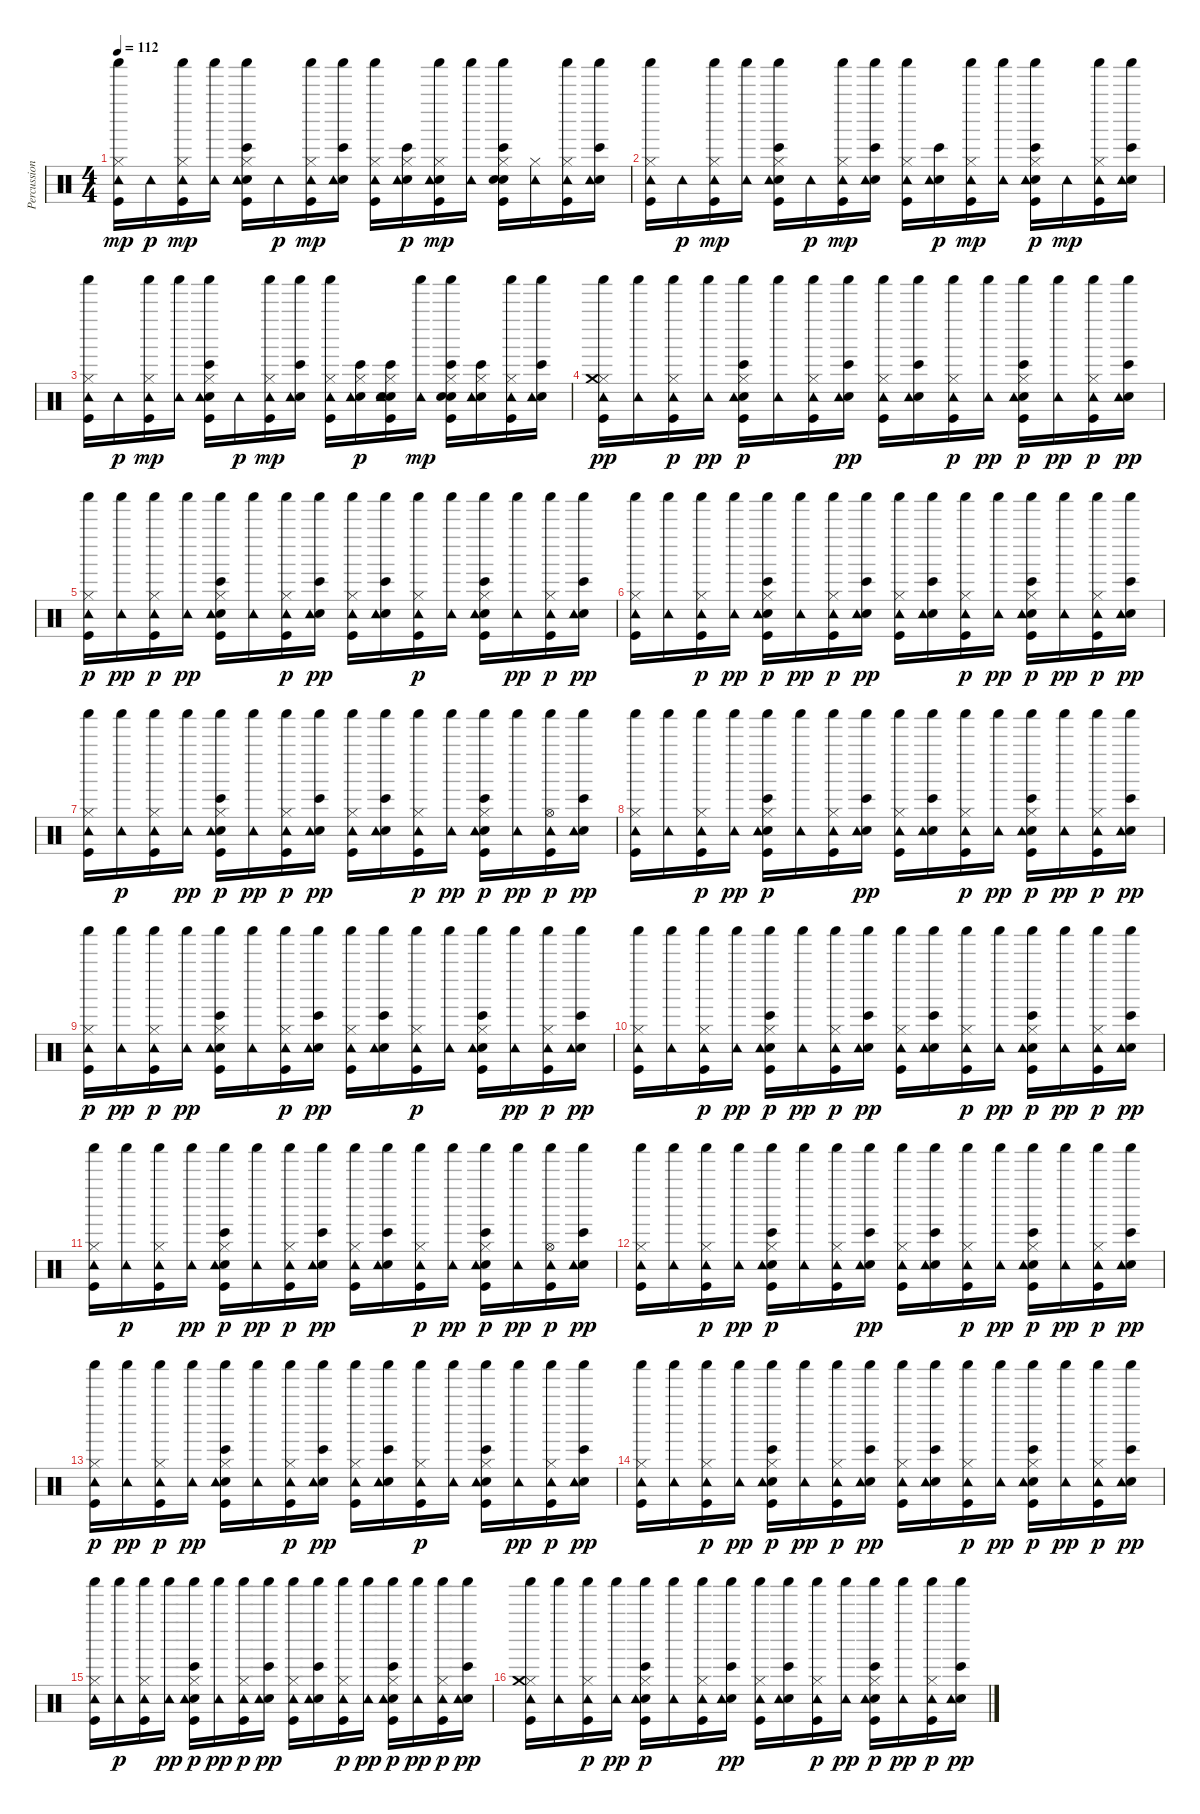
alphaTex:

\track ("Percussioni" "Percussion") {instrument percussion}
\staff {score}
\articulation defaults
\ts (4 4)
\tempo 112
\clef neutral
\ks c
("Kick (hit)" "Hi-Hat (closed)" "Tambourine (hit)" "Shaker (hit)").16{dy mp} "Tambourine (hit)".16{dy p} ("Kick (hit)" "Hi-Hat (closed)" "Tambourine (hit)" "Shaker (hit)").16{dy mp} ("Tambourine (hit)" "Shaker (hit)").16 ("Bongo High (hit)" "Kick (hit)" "Electric Snare (hit)" "Hi-Hat (closed)" "Tambourine (hit)" "Shaker (hit)").16 "Tambourine (hit)".16{dy p} ("Kick (hit)" "Hi-Hat (closed)" "Tambourine (hit)" "Shaker (hit)").16{dy mp} ("Bongo High (hit)" "Electric Snare (hit)" "Tambourine (hit)" "Shaker (hit)").16 ("Kick (hit)" "Hi-Hat (closed)" "Tambourine (hit)" "Shaker (hit)").16 ("Bongo High (hit)" "Electric Snare (hit)" "Hi-Hat (closed)" "Tambourine (hit)").16{dy p} ("Kick (hit)" "Hand Clap (hit)" "Hi-Hat (closed)" "Tambourine (hit)" "Shaker (hit)").16{dy mp} ("Tambourine (hit)" "Shaker (hit)").16 ("Bongo High (hit)" "Kick (hit)" "Hand Clap (hit)" "Electric Snare (hit)" "Hi-Hat (closed)" "Shaker (hit)").16 ("Hi-Hat (closed)" "Tambourine (hit)").16 ("Kick (hit)" "Hi-Hat (closed)" "Tambourine (hit)" "Shaker (hit)").16 ("Bongo High (hit)" "Electric Snare (hit)" "Tambourine (hit)" "Shaker (hit)").16 |
("Kick (hit)" "Hi-Hat (closed)" "Tambourine (hit)" "Shaker (hit)").16 "Tambourine (hit)".16{dy p} ("Kick (hit)" "Hi-Hat (closed)" "Tambourine (hit)" "Shaker (hit)").16{dy mp} ("Tambourine (hit)" "Shaker (hit)").16 ("Bongo High (hit)" "Kick (hit)" "Electric Snare (hit)" "Hi-Hat (closed)" "Tambourine (hit)" "Shaker (hit)").16 "Tambourine (hit)".16{dy p} ("Kick (hit)" "Hi-Hat (closed)" "Tambourine (hit)" "Shaker (hit)").16{dy mp} ("Bongo High (hit)" "Electric Snare (hit)" "Tambourine (hit)" "Shaker (hit)").16 ("Kick (hit)" "Hi-Hat (closed)" "Tambourine (hit)" "Shaker (hit)").16 ("Bongo High (hit)" "Electric Snare (hit)" "Tambourine (hit)").16{dy p} ("Kick (hit)" "Hi-Hat (closed)" "Tambourine (hit)" "Shaker (hit)").16{dy mp} ("Tambourine (hit)" "Shaker (hit)").16 ("Bongo High (hit)" "Kick (hit)" "Electric Snare (hit)" "Hi-Hat (closed)" "Shaker (hit)" "Tambourine (hit)").16{dy p} "Tambourine (hit)".16{dy mp} ("Kick (hit)" "Hi-Hat (closed)" "Tambourine (hit)" "Shaker (hit)").16 ("Bongo High (hit)" "Electric Snare (hit)" "Tambourine (hit)" "Shaker (hit)").16 |
("Kick (hit)" "Hi-Hat (closed)" "Tambourine (hit)" "Shaker (hit)").16 "Tambourine (hit)".16{dy p} ("Kick (hit)" "Hi-Hat (closed)" "Tambourine (hit)" "Shaker (hit)").16{dy mp} ("Tambourine (hit)" "Shaker (hit)").16 ("Bongo High (hit)" "Kick (hit)" "Electric Snare (hit)" "Hi-Hat (closed)" "Tambourine (hit)" "Shaker (hit)").16 "Tambourine (hit)".16{dy p} ("Kick (hit)" "Hi-Hat (closed)" "Tambourine (hit)" "Shaker (hit)").16{dy mp} ("Bongo High (hit)" "Electric Snare (hit)" "Tambourine (hit)" "Shaker (hit)").16 ("Kick (hit)" "Hi-Hat (closed)" "Tambourine (hit)" "Shaker (hit)").16 ("Bongo High (hit)" "Electric Snare (hit)" "Hi-Hat (closed)" "Tambourine (hit)").16{dy p} ("Bongo High (hit)" "Kick (hit)" "Hand Clap (hit)" "Electric Snare (hit)" "Hi-Hat (closed)" "Tambourine (hit)").16 ("Tambourine (hit)" "Shaker (hit)").16{dy mp} ("Bongo High (hit)" "Kick (hit)" "Hand Clap (hit)" "Electric Snare (hit)" "Hi-Hat (closed)" "Shaker (hit)").16 ("Bongo High (hit)" "Electric Snare (hit)" "Hi-Hat (closed)" "Tambourine (hit)").16 ("Kick (hit)" "Hi-Hat (closed)" "Tambourine (hit)" "Shaker (hit)").16 ("Bongo High (hit)" "Electric Snare (hit)" "Tambourine (hit)" "Shaker (hit)").16 |
("Kick (hit)" "Hi-Hat (closed)" "Tambourine (hit)" "Crash medium (hit)" "Shaker (hit)").16{dy pp} ("Tambourine (hit)" "Shaker (hit)").16 ("Kick (hit)" "Hi-Hat (closed)" "Shaker (hit)" "Tambourine (hit)").16{dy p} ("Tambourine (hit)" "Shaker (hit)").16{dy pp} ("Bongo High (hit)" "Kick (hit)" "Electric Snare (hit)" "Hi-Hat (closed)" "Shaker (hit)" "Tambourine (hit)").16{dy p} ("Shaker (hit)" "Tambourine (hit)").16 ("Kick (hit)" "Hi-Hat (closed)" "Shaker (hit)" "Tambourine (hit)").16 ("Bongo High (hit)" "Electric Snare (hit)" "Tambourine (hit)" "Shaker (hit)").16{dy pp} ("Kick (hit)" "Hi-Hat (closed)" "Tambourine (hit)" "Shaker (hit)").16 ("Bongo High (hit)" "Electric Snare (hit)" "Tambourine (hit)" "Shaker (hit)").16 ("Kick (hit)" "Hi-Hat (closed)" "Shaker (hit)" "Tambourine (hit)").16{dy p} ("Tambourine (hit)" "Shaker (hit)").16{dy pp} ("Bongo High (hit)" "Kick (hit)" "Electric Snare (hit)" "Hi-Hat (closed)" "Shaker (hit)" "Tambourine (hit)").16{dy p} ("Tambourine (hit)" "Shaker (hit)").16{dy pp} ("Kick (hit)" "Hi-Hat (closed)" "Shaker (hit)" "Tambourine (hit)").16{dy p} ("Bongo High (hit)" "Electric Snare (hit)" "Tambourine (hit)" "Shaker (hit)").16{dy pp} |
("Shaker (hit)" "Kick (hit)" "Hi-Hat (closed)" "Tambourine (hit)").16{dy p} ("Tambourine (hit)" "Shaker (hit)").16{dy pp} ("Kick (hit)" "Hi-Hat (closed)" "Shaker (hit)" "Tambourine (hit)").16{dy p} ("Tambourine (hit)" "Shaker (hit)").16{dy pp} ("Bongo High (hit)" "Kick (hit)" "Electric Snare (hit)" "Hi-Hat (closed)" "Tambourine (hit)" "Shaker (hit)").16 ("Tambourine (hit)" "Shaker (hit)").16 ("Kick (hit)" "Hi-Hat (closed)" "Shaker (hit)" "Tambourine (hit)").16{dy p} ("Bongo High (hit)" "Electric Snare (hit)" "Tambourine (hit)" "Shaker (hit)").16{dy pp} ("Kick (hit)" "Hi-Hat (closed)" "Tambourine (hit)" "Shaker (hit)").16 ("Bongo High (hit)" "Electric Snare (hit)" "Tambourine (hit)" "Shaker (hit)").16 ("Kick (hit)" "Hi-Hat (closed)" "Shaker (hit)" "Tambourine (hit)").16{dy p} ("Shaker (hit)" "Tambourine (hit)").16 ("Bongo High (hit)" "Kick (hit)" "Electric Snare (hit)" "Hi-Hat (closed)" "Shaker (hit)" "Tambourine (hit)").16 ("Tambourine (hit)" "Shaker (hit)").16{dy pp} ("Kick (hit)" "Hi-Hat (closed)" "Shaker (hit)" "Tambourine (hit)").16{dy p} ("Bongo High (hit)" "Electric Snare (hit)" "Tambourine (hit)" "Shaker (hit)").16{dy pp} |
("Kick (hit)" "Hi-Hat (closed)" "Tambourine (hit)" "Shaker (hit)").16 ("Tambourine (hit)" "Shaker (hit)").16 ("Kick (hit)" "Hi-Hat (closed)" "Shaker (hit)" "Tambourine (hit)").16{dy p} ("Tambourine (hit)" "Shaker (hit)").16{dy pp} ("Bongo High (hit)" "Kick (hit)" "Electric Snare (hit)" "Hi-Hat (closed)" "Shaker (hit)" "Tambourine (hit)").16{dy p} ("Tambourine (hit)" "Shaker (hit)").16{dy pp} ("Shaker (hit)" "Kick (hit)" "Hi-Hat (closed)" "Tambourine (hit)").16{dy p} ("Bongo High (hit)" "Electric Snare (hit)" "Tambourine (hit)" "Shaker (hit)").16{dy pp} ("Kick (hit)" "Hi-Hat (closed)" "Tambourine (hit)" "Shaker (hit)").16 ("Bongo High (hit)" "Electric Snare (hit)" "Tambourine (hit)" "Shaker (hit)").16 ("Kick (hit)" "Hi-Hat (closed)" "Shaker (hit)" "Tambourine (hit)").16{dy p} ("Tambourine (hit)" "Shaker (hit)").16{dy pp} ("Bongo High (hit)" "Kick (hit)" "Electric Snare (hit)" "Hi-Hat (closed)" "Shaker (hit)" "Tambourine (hit)").16{dy p} ("Tambourine (hit)" "Shaker (hit)").16{dy pp} ("Kick (hit)" "Hi-Hat (closed)" "Shaker (hit)" "Tambourine (hit)").16{dy p} ("Bongo High (hit)" "Electric Snare (hit)" "Tambourine (hit)" "Shaker (hit)").16{dy pp} |
("Kick (hit)" "Hi-Hat (closed)" "Tambourine (hit)" "Shaker (hit)").16 ("Shaker (hit)" "Tambourine (hit)").16{dy p} ("Kick (hit)" "Hi-Hat (closed)" "Shaker (hit)" "Tambourine (hit)").16 ("Tambourine (hit)" "Shaker (hit)").16{dy pp} ("Bongo High (hit)" "Kick (hit)" "Electric Snare (hit)" "Hi-Hat (closed)" "Shaker (hit)" "Tambourine (hit)").16{dy p} ("Tambourine (hit)" "Shaker (hit)").16{dy pp} ("Kick (hit)" "Hi-Hat (closed)" "Shaker (hit)" "Tambourine (hit)").16{dy p} ("Bongo High (hit)" "Electric Snare (hit)" "Tambourine (hit)" "Shaker (hit)").16{dy pp} ("Kick (hit)" "Hi-Hat (closed)" "Tambourine (hit)" "Shaker (hit)").16 ("Bongo High (hit)" "Electric Snare (hit)" "Tambourine (hit)" "Shaker (hit)").16 ("Kick (hit)" "Hi-Hat (closed)" "Shaker (hit)" "Tambourine (hit)").16{dy p} ("Tambourine (hit)" "Shaker (hit)").16{dy pp} ("Shaker (hit)" "Bongo High (hit)" "Kick (hit)" "Electric Snare (hit)" "Hi-Hat (closed)" "Tambourine (hit)").16{dy p} ("Tambourine (hit)" "Shaker (hit)").16{dy pp} ("Kick (hit)" "Hi-Hat (open)" "Shaker (hit)" "Tambourine (hit)").16{dy p} ("Bongo High (hit)" "Electric Snare (hit)" "Tambourine (hit)" "Shaker (hit)").16{dy pp} |
("Kick (hit)" "Hi-Hat (closed)" "Tambourine (hit)" "Shaker (hit)").16 ("Tambourine (hit)" "Shaker (hit)").16 ("Kick (hit)" "Hi-Hat (closed)" "Shaker (hit)" "Tambourine (hit)").16{dy p} ("Tambourine (hit)" "Shaker (hit)").16{dy pp} ("Bongo High (hit)" "Kick (hit)" "Electric Snare (hit)" "Hi-Hat (closed)" "Shaker (hit)" "Tambourine (hit)").16{dy p} ("Shaker (hit)" "Tambourine (hit)").16 ("Kick (hit)" "Hi-Hat (closed)" "Shaker (hit)" "Tambourine (hit)").16 ("Bongo High (hit)" "Electric Snare (hit)" "Tambourine (hit)" "Shaker (hit)").16{dy pp} ("Kick (hit)" "Hi-Hat (closed)" "Tambourine (hit)" "Shaker (hit)").16 ("Bongo High (hit)" "Electric Snare (hit)" "Tambourine (hit)" "Shaker (hit)").16 ("Kick (hit)" "Hi-Hat (closed)" "Shaker (hit)" "Tambourine (hit)").16{dy p} ("Tambourine (hit)" "Shaker (hit)").16{dy pp} ("Bongo High (hit)" "Kick (hit)" "Electric Snare (hit)" "Hi-Hat (closed)" "Shaker (hit)" "Tambourine (hit)").16{dy p} ("Tambourine (hit)" "Shaker (hit)").16{dy pp} ("Kick (hit)" "Hi-Hat (closed)" "Shaker (hit)" "Tambourine (hit)").16{dy p} ("Bongo High (hit)" "Electric Snare (hit)" "Tambourine (hit)" "Shaker (hit)").16{dy pp} |
("Shaker (hit)" "Kick (hit)" "Hi-Hat (closed)" "Tambourine (hit)").16{dy p} ("Tambourine (hit)" "Shaker (hit)").16{dy pp} ("Kick (hit)" "Hi-Hat (closed)" "Shaker (hit)" "Tambourine (hit)").16{dy p} ("Tambourine (hit)" "Shaker (hit)").16{dy pp} ("Bongo High (hit)" "Kick (hit)" "Electric Snare (hit)" "Hi-Hat (closed)" "Tambourine (hit)" "Shaker (hit)").16 ("Tambourine (hit)" "Shaker (hit)").16 ("Kick (hit)" "Hi-Hat (closed)" "Shaker (hit)" "Tambourine (hit)").16{dy p} ("Bongo High (hit)" "Electric Snare (hit)" "Tambourine (hit)" "Shaker (hit)").16{dy pp} ("Kick (hit)" "Hi-Hat (closed)" "Tambourine (hit)" "Shaker (hit)").16 ("Bongo High (hit)" "Electric Snare (hit)" "Tambourine (hit)" "Shaker (hit)").16 ("Kick (hit)" "Hi-Hat (closed)" "Shaker (hit)" "Tambourine (hit)").16{dy p} ("Shaker (hit)" "Tambourine (hit)").16 ("Bongo High (hit)" "Kick (hit)" "Electric Snare (hit)" "Hi-Hat (closed)" "Shaker (hit)" "Tambourine (hit)").16 ("Tambourine (hit)" "Shaker (hit)").16{dy pp} ("Kick (hit)" "Hi-Hat (closed)" "Shaker (hit)" "Tambourine (hit)").16{dy p} ("Bongo High (hit)" "Electric Snare (hit)" "Tambourine (hit)" "Shaker (hit)").16{dy pp} |
("Kick (hit)" "Hi-Hat (closed)" "Tambourine (hit)" "Shaker (hit)").16 ("Tambourine (hit)" "Shaker (hit)").16 ("Kick (hit)" "Hi-Hat (closed)" "Shaker (hit)" "Tambourine (hit)").16{dy p} ("Tambourine (hit)" "Shaker (hit)").16{dy pp} ("Bongo High (hit)" "Kick (hit)" "Electric Snare (hit)" "Hi-Hat (closed)" "Shaker (hit)" "Tambourine (hit)").16{dy p} ("Tambourine (hit)" "Shaker (hit)").16{dy pp} ("Shaker (hit)" "Kick (hit)" "Hi-Hat (closed)" "Tambourine (hit)").16{dy p} ("Bongo High (hit)" "Electric Snare (hit)" "Tambourine (hit)" "Shaker (hit)").16{dy pp} ("Kick (hit)" "Hi-Hat (closed)" "Tambourine (hit)" "Shaker (hit)").16 ("Bongo High (hit)" "Electric Snare (hit)" "Tambourine (hit)" "Shaker (hit)").16 ("Kick (hit)" "Hi-Hat (closed)" "Shaker (hit)" "Tambourine (hit)").16{dy p} ("Tambourine (hit)" "Shaker (hit)").16{dy pp} ("Bongo High (hit)" "Kick (hit)" "Electric Snare (hit)" "Hi-Hat (closed)" "Shaker (hit)" "Tambourine (hit)").16{dy p} ("Tambourine (hit)" "Shaker (hit)").16{dy pp} ("Kick (hit)" "Hi-Hat (closed)" "Shaker (hit)" "Tambourine (hit)").16{dy p} ("Bongo High (hit)" "Electric Snare (hit)" "Tambourine (hit)" "Shaker (hit)").16{dy pp} |
("Kick (hit)" "Hi-Hat (closed)" "Tambourine (hit)" "Shaker (hit)").16 ("Shaker (hit)" "Tambourine (hit)").16{dy p} ("Kick (hit)" "Hi-Hat (closed)" "Shaker (hit)" "Tambourine (hit)").16 ("Tambourine (hit)" "Shaker (hit)").16{dy pp} ("Bongo High (hit)" "Kick (hit)" "Electric Snare (hit)" "Hi-Hat (closed)" "Shaker (hit)" "Tambourine (hit)").16{dy p} ("Tambourine (hit)" "Shaker (hit)").16{dy pp} ("Kick (hit)" "Hi-Hat (closed)" "Shaker (hit)" "Tambourine (hit)").16{dy p} ("Bongo High (hit)" "Electric Snare (hit)" "Tambourine (hit)" "Shaker (hit)").16{dy pp} ("Kick (hit)" "Hi-Hat (closed)" "Tambourine (hit)" "Shaker (hit)").16 ("Bongo High (hit)" "Electric Snare (hit)" "Tambourine (hit)" "Shaker (hit)").16 ("Kick (hit)" "Hi-Hat (closed)" "Shaker (hit)" "Tambourine (hit)").16{dy p} ("Tambourine (hit)" "Shaker (hit)").16{dy pp} ("Shaker (hit)" "Bongo High (hit)" "Kick (hit)" "Electric Snare (hit)" "Hi-Hat (closed)" "Tambourine (hit)").16{dy p} ("Tambourine (hit)" "Shaker (hit)").16{dy pp} ("Kick (hit)" "Hi-Hat (open)" "Shaker (hit)" "Tambourine (hit)").16{dy p} ("Bongo High (hit)" "Electric Snare (hit)" "Tambourine (hit)" "Shaker (hit)").16{dy pp} |
("Kick (hit)" "Hi-Hat (closed)" "Tambourine (hit)" "Shaker (hit)").16 ("Tambourine (hit)" "Shaker (hit)").16 ("Kick (hit)" "Hi-Hat (closed)" "Shaker (hit)" "Tambourine (hit)").16{dy p} ("Tambourine (hit)" "Shaker (hit)").16{dy pp} ("Bongo High (hit)" "Kick (hit)" "Electric Snare (hit)" "Hi-Hat (closed)" "Shaker (hit)" "Tambourine (hit)").16{dy p} ("Shaker (hit)" "Tambourine (hit)").16 ("Kick (hit)" "Hi-Hat (closed)" "Shaker (hit)" "Tambourine (hit)").16 ("Bongo High (hit)" "Electric Snare (hit)" "Tambourine (hit)" "Shaker (hit)").16{dy pp} ("Kick (hit)" "Hi-Hat (closed)" "Tambourine (hit)" "Shaker (hit)").16 ("Bongo High (hit)" "Electric Snare (hit)" "Tambourine (hit)" "Shaker (hit)").16 ("Kick (hit)" "Hi-Hat (closed)" "Shaker (hit)" "Tambourine (hit)").16{dy p} ("Tambourine (hit)" "Shaker (hit)").16{dy pp} ("Bongo High (hit)" "Kick (hit)" "Electric Snare (hit)" "Hi-Hat (closed)" "Shaker (hit)" "Tambourine (hit)").16{dy p} ("Tambourine (hit)" "Shaker (hit)").16{dy pp} ("Kick (hit)" "Hi-Hat (closed)" "Shaker (hit)" "Tambourine (hit)").16{dy p} ("Bongo High (hit)" "Electric Snare (hit)" "Tambourine (hit)" "Shaker (hit)").16{dy pp} |
("Shaker (hit)" "Kick (hit)" "Hi-Hat (closed)" "Tambourine (hit)").16{dy p} ("Tambourine (hit)" "Shaker (hit)").16{dy pp} ("Kick (hit)" "Hi-Hat (closed)" "Shaker (hit)" "Tambourine (hit)").16{dy p} ("Tambourine (hit)" "Shaker (hit)").16{dy pp} ("Bongo High (hit)" "Kick (hit)" "Electric Snare (hit)" "Hi-Hat (closed)" "Tambourine (hit)" "Shaker (hit)").16 ("Tambourine (hit)" "Shaker (hit)").16 ("Kick (hit)" "Hi-Hat (closed)" "Shaker (hit)" "Tambourine (hit)").16{dy p} ("Bongo High (hit)" "Electric Snare (hit)" "Tambourine (hit)" "Shaker (hit)").16{dy pp} ("Kick (hit)" "Hi-Hat (closed)" "Tambourine (hit)" "Shaker (hit)").16 ("Bongo High (hit)" "Electric Snare (hit)" "Tambourine (hit)" "Shaker (hit)").16 ("Kick (hit)" "Hi-Hat (closed)" "Shaker (hit)" "Tambourine (hit)").16{dy p} ("Shaker (hit)" "Tambourine (hit)").16 ("Bongo High (hit)" "Kick (hit)" "Electric Snare (hit)" "Hi-Hat (closed)" "Shaker (hit)" "Tambourine (hit)").16 ("Tambourine (hit)" "Shaker (hit)").16{dy pp} ("Kick (hit)" "Hi-Hat (closed)" "Shaker (hit)" "Tambourine (hit)").16{dy p} ("Bongo High (hit)" "Electric Snare (hit)" "Tambourine (hit)" "Shaker (hit)").16{dy pp} |
("Kick (hit)" "Hi-Hat (closed)" "Tambourine (hit)" "Shaker (hit)").16 ("Tambourine (hit)" "Shaker (hit)").16 ("Kick (hit)" "Hi-Hat (closed)" "Shaker (hit)" "Tambourine (hit)").16{dy p} ("Tambourine (hit)" "Shaker (hit)").16{dy pp} ("Bongo High (hit)" "Kick (hit)" "Electric Snare (hit)" "Hi-Hat (closed)" "Shaker (hit)" "Tambourine (hit)").16{dy p} ("Tambourine (hit)" "Shaker (hit)").16{dy pp} ("Shaker (hit)" "Kick (hit)" "Hi-Hat (closed)" "Tambourine (hit)").16{dy p} ("Bongo High (hit)" "Electric Snare (hit)" "Tambourine (hit)" "Shaker (hit)").16{dy pp} ("Kick (hit)" "Hi-Hat (closed)" "Tambourine (hit)" "Shaker (hit)").16 ("Bongo High (hit)" "Electric Snare (hit)" "Tambourine (hit)" "Shaker (hit)").16 ("Kick (hit)" "Hi-Hat (closed)" "Shaker (hit)" "Tambourine (hit)").16{dy p} ("Tambourine (hit)" "Shaker (hit)").16{dy pp} ("Bongo High (hit)" "Kick (hit)" "Electric Snare (hit)" "Hi-Hat (closed)" "Shaker (hit)" "Tambourine (hit)").16{dy p} ("Tambourine (hit)" "Shaker (hit)").16{dy pp} ("Kick (hit)" "Hi-Hat (closed)" "Shaker (hit)" "Tambourine (hit)").16{dy p} ("Bongo High (hit)" "Electric Snare (hit)" "Tambourine (hit)" "Shaker (hit)").16{dy pp} |
("Kick (hit)" "Hi-Hat (closed)" "Tambourine (hit)" "Shaker (hit)").16 ("Shaker (hit)" "Tambourine (hit)").16{dy p} ("Kick (hit)" "Hi-Hat (closed)" "Shaker (hit)" "Tambourine (hit)").16 ("Tambourine (hit)" "Shaker (hit)").16{dy pp} ("Bongo High (hit)" "Kick (hit)" "Electric Snare (hit)" "Hi-Hat (closed)" "Shaker (hit)" "Tambourine (hit)").16{dy p} ("Tambourine (hit)" "Shaker (hit)").16{dy pp} ("Kick (hit)" "Hi-Hat (closed)" "Shaker (hit)" "Tambourine (hit)").16{dy p} ("Bongo High (hit)" "Electric Snare (hit)" "Tambourine (hit)" "Shaker (hit)").16{dy pp} ("Kick (hit)" "Hi-Hat (closed)" "Tambourine (hit)" "Shaker (hit)").16 ("Bongo High (hit)" "Electric Snare (hit)" "Tambourine (hit)" "Shaker (hit)").16 ("Kick (hit)" "Hi-Hat (closed)" "Shaker (hit)" "Tambourine (hit)").16{dy p} ("Tambourine (hit)" "Shaker (hit)").16{dy pp} ("Shaker (hit)" "Bongo High (hit)" "Kick (hit)" "Electric Snare (hit)" "Hi-Hat (closed)" "Tambourine (hit)").16{dy p} ("Tambourine (hit)" "Shaker (hit)").16{dy pp} ("Kick (hit)" "Hi-Hat (closed)" "Shaker (hit)" "Tambourine (hit)").16{dy p} ("Bongo High (hit)" "Electric Snare (hit)" "Tambourine (hit)" "Shaker (hit)").16{dy pp} |
("Kick (hit)" "Hi-Hat (closed)" "Tambourine (hit)" "Crash medium (hit)" "Shaker (hit)").16 ("Tambourine (hit)" "Shaker (hit)").16 ("Kick (hit)" "Hi-Hat (closed)" "Shaker (hit)" "Tambourine (hit)").16{dy p} ("Tambourine (hit)" "Shaker (hit)").16{dy pp} ("Bongo High (hit)" "Kick (hit)" "Electric Snare (hit)" "Hi-Hat (closed)" "Shaker (hit)" "Tambourine (hit)").16{dy p} ("Shaker (hit)" "Tambourine (hit)").16 ("Kick (hit)" "Hi-Hat (closed)" "Shaker (hit)" "Tambourine (hit)").16 ("Bongo High (hit)" "Electric Snare (hit)" "Tambourine (hit)" "Shaker (hit)").16{dy pp} ("Kick (hit)" "Hi-Hat (closed)" "Tambourine (hit)" "Shaker (hit)").16 ("Bongo High (hit)" "Electric Snare (hit)" "Tambourine (hit)" "Shaker (hit)").16 ("Kick (hit)" "Hi-Hat (closed)" "Shaker (hit)" "Tambourine (hit)").16{dy p} ("Tambourine (hit)" "Shaker (hit)").16{dy pp} ("Bongo High (hit)" "Kick (hit)" "Electric Snare (hit)" "Hi-Hat (closed)" "Shaker (hit)" "Tambourine (hit)").16{dy p} ("Tambourine (hit)" "Shaker (hit)").16{dy pp} ("Kick (hit)" "Hi-Hat (closed)" "Shaker (hit)" "Tambourine (hit)").16{dy p} ("Bongo High (hit)" "Electric Snare (hit)" "Tambourine (hit)" "Shaker (hit)").16{dy pp}
